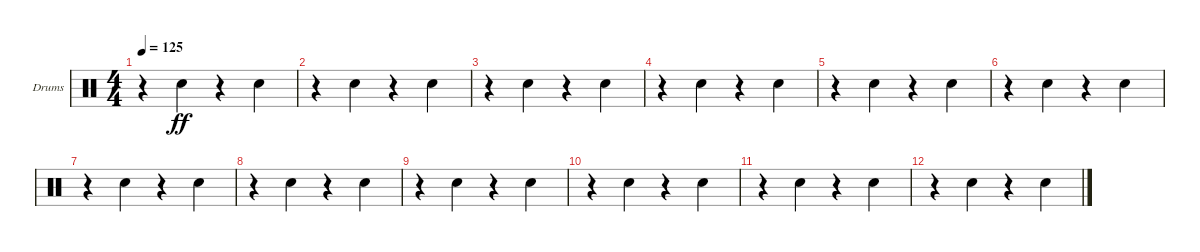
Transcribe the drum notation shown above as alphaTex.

\defaultSystemsLayout 4
\bracketExtendMode groupsimilarinstruments
\firstSystemTrackNameOrientation horizontal
\otherSystemsTrackNameOrientation horizontal
\track ("Drumkit" "Drums") {instrument percussion}
\staff {score}
\articulation defaults
\ts (4 4)
\tempo 125
\clef neutral
\scale
0.333333
\ks c
r.4{dy ff} "Snare (hit) 2".4 r.4 "Snare (hit) 2".4 |
\scale
0.333333 r.4 "Snare (hit) 2".4 r.4 "Snare (hit) 2".4 |
\scale
0.333333 r.4 "Snare (hit) 2".4 r.4 "Snare (hit) 2".4 |
\scale
0.333333 r.4 "Snare (hit) 2".4 r.4 "Snare (hit) 2".4 |
\scale
0.333333 r.4 "Snare (hit) 2".4 r.4 "Snare (hit) 2".4 |
\scale
0.333333 r.4 "Snare (hit) 2".4 r.4 "Snare (hit) 2".4 |
\scale
0.333333 r.4 "Snare (hit) 2".4 r.4 "Snare (hit) 2".4 |
r.4 "Snare (hit) 2".4 r.4 "Snare (hit) 2".4 |
\scale
0.333333 r.4 "Snare (hit) 2".4 r.4 "Snare (hit) 2".4 |
\scale
0.333333 r.4 "Snare (hit) 2".4 r.4 "Snare (hit) 2".4 |
\scale
0.333333 r.4 "Snare (hit) 2".4 r.4 "Snare (hit) 2".4 |
\scale
0.333333 r.4 "Snare (hit) 2".4 r.4 "Snare (hit) 2".4 |
\scale
0.333333 |
\scale
0.333333 |
\scale
0.333333 |
\scale
0.333333
